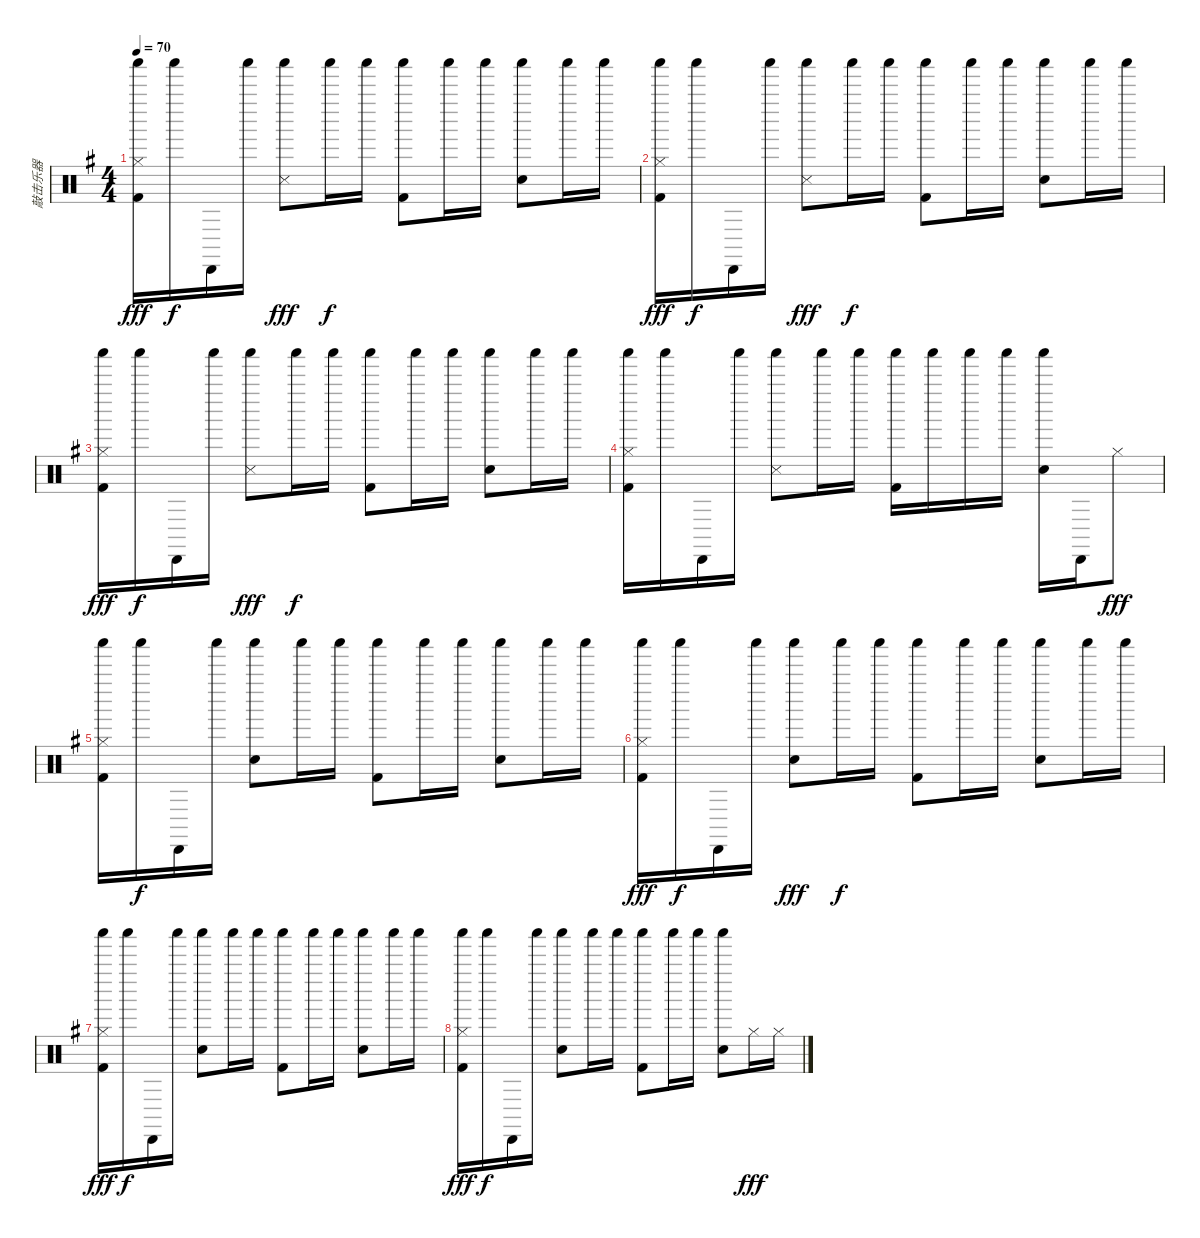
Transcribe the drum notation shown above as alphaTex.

\track ("敲击乐器" "敲击乐器") {instrument percussion}
\staff {score}
\articulation defaults
\ts (4 4)
\tempo 70
\clef neutral
\ks g
("Shaker (hit)" "Hi-Hat (closed)" "Kick (hit) 2").16{dy fff} "Shaker (hit)".16{dy f} "Cabasa (hit)".16 "Shaker (hit)".16 ("Shaker (hit)" "Snare (side stick) 3").8{dy fff} "Shaker (hit)".16{dy f} "Shaker (hit)".16 ("Shaker (hit)" "Kick (hit) 2").8 "Shaker (hit)".16 "Shaker (hit)".16 ("Shaker (hit)" "Snare (hit) 2").8 "Shaker (hit)".16 "Shaker (hit)".16 |
("Shaker (hit)" "Hi-Hat (closed)" "Kick (hit) 2").16{dy fff} "Shaker (hit)".16{dy f} "Cabasa (hit)".16 "Shaker (hit)".16 ("Shaker (hit)" "Snare (side stick) 3").8{dy fff} "Shaker (hit)".16{dy f} "Shaker (hit)".16 ("Shaker (hit)" "Kick (hit) 2").8 "Shaker (hit)".16 "Shaker (hit)".16 ("Shaker (hit)" "Snare (hit) 2").8 "Shaker (hit)".16 "Shaker (hit)".16 |
("Shaker (hit)" "Hi-Hat (closed)" "Kick (hit) 2").16{dy fff} "Shaker (hit)".16{dy f} "Cabasa (hit)".16 "Shaker (hit)".16 ("Shaker (hit)" "Snare (side stick) 3").8{dy fff} "Shaker (hit)".16{dy f} "Shaker (hit)".16 ("Shaker (hit)" "Kick (hit) 2").8 "Shaker (hit)".16 "Shaker (hit)".16 ("Shaker (hit)" "Snare (hit) 2").8 "Shaker (hit)".16 "Shaker (hit)".16 |
("Shaker (hit)" "Hi-Hat (closed)" "Kick (hit) 2").16 "Shaker (hit)".16 "Cabasa (hit)".16 "Shaker (hit)".16 ("Shaker (hit)" "Snare (side stick) 3").8 "Shaker (hit)".16 "Shaker (hit)".16 ("Shaker (hit)" "Kick (hit) 2").16 "Shaker (hit)".16 "Shaker (hit)".16 "Shaker (hit)".16 ("Shaker (hit)" "Snare (hit) 2").16 "Cabasa (hit)".16 "Hi-Hat (closed)".8{dy fff} |
("Shaker (hit)" "Hi-Hat (closed)" "Kick (hit) 2").16 "Shaker (hit)".16{dy f} "Cabasa (hit)".16 "Shaker (hit)".16 ("Shaker (hit)" "Snare (hit) 2").8 "Shaker (hit)".16 "Shaker (hit)".16 ("Shaker (hit)" "Kick (hit) 2").8 "Shaker (hit)".16 "Shaker (hit)".16 ("Shaker (hit)" "Snare (hit) 2").8 "Shaker (hit)".16 "Shaker (hit)".16 |
("Shaker (hit)" "Hi-Hat (closed)" "Kick (hit) 2").16{dy fff} "Shaker (hit)".16{dy f} "Cabasa (hit)".16 "Shaker (hit)".16 ("Shaker (hit)" "Snare (hit) 2").8{dy fff} "Shaker (hit)".16{dy f} "Shaker (hit)".16 ("Shaker (hit)" "Kick (hit) 2").8 "Shaker (hit)".16 "Shaker (hit)".16 ("Shaker (hit)" "Snare (hit) 2").8 "Shaker (hit)".16 "Shaker (hit)".16 |
("Shaker (hit)" "Hi-Hat (closed)" "Kick (hit) 2").16{dy fff} "Shaker (hit)".16{dy f} "Cabasa (hit)".16 "Shaker (hit)".16 ("Shaker (hit)" "Snare (hit) 2").8 "Shaker (hit)".16 "Shaker (hit)".16 ("Shaker (hit)" "Kick (hit) 2").8 "Shaker (hit)".16 "Shaker (hit)".16 ("Shaker (hit)" "Snare (hit) 2").8 "Shaker (hit)".16 "Shaker (hit)".16 |
("Shaker (hit)" "Hi-Hat (closed)" "Kick (hit) 2").16{dy fff} "Shaker (hit)".16{dy f} "Cabasa (hit)".16 "Shaker (hit)".16 ("Shaker (hit)" "Snare (hit) 2").8 "Shaker (hit)".16 "Shaker (hit)".16 ("Shaker (hit)" "Kick (hit) 2").8 "Shaker (hit)".16 "Shaker (hit)".16 ("Shaker (hit)" "Snare (hit) 2").8 "Hi-Hat (closed)".16{dy fff} "Hi-Hat (closed)".16
